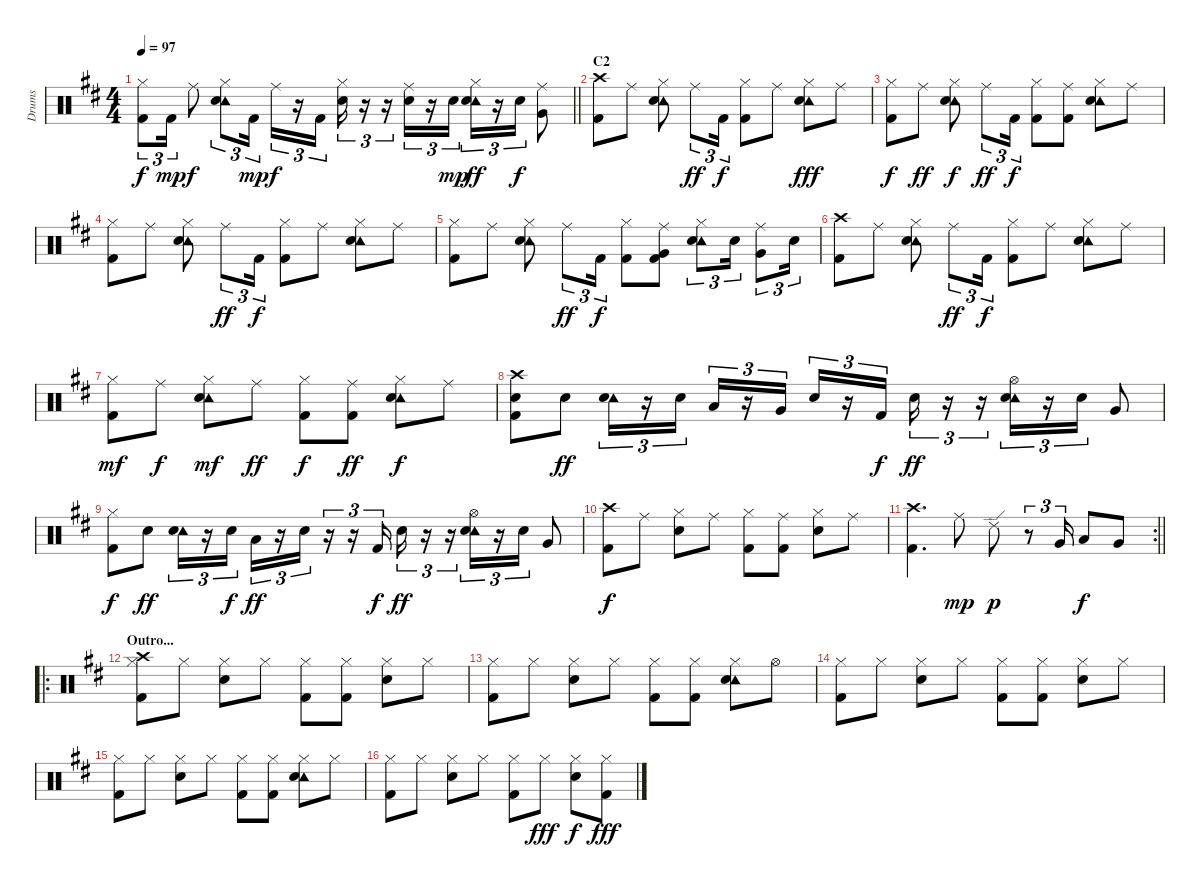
\track ("Drums" "Drums") {instrument percussion}
\staff {score}
\articulation defaults
\ts (4 4)
\tempo 97
\clef neutral
\barLineRight lightlight
\ks d
("Hi-Hat (closed)" "Kick (hit) 2").8{tu (3 2) dy f} "Kick (hit) 2".16{tu (3 2) dy mp} "Ride (middle)".8{dy f} ("Hi-Hat (closed)" "Tambourine (hit)" "Electric Snare (hit)").8{tu (3 2)} "Kick (hit) 2".16{tu (3 2) dy mp} "Ride (middle)".16{tu (3 2) dy f} r.16{tu (3 2)} "Kick (hit) 2".16{tu (3 2)} ("Hi-Hat (closed)" "Electric Snare (hit)").16{tu (3 2)} r.16{tu (3 2)} r.16{tu (3 2)} ("Ride (middle)" "Electric Snare (hit)").16{tu (3 2)} r.16{tu (3 2)} "Electric Snare (hit)".16{tu (3 2) dy mp} ("Hi-Hat (closed)" "Tambourine (hit)" "Electric Snare (hit)").16{tu (3 2) dy ff} r.16{tu (3 2)} "Electric Snare (hit)".16{tu (3 2) dy f} ("Ride (middle)" "Very Low Tom (hit)").8 |
\section ("" "C2")
("Crash high (hit)" "Kick (hit) 2").8 "Ride (middle)".8 ("Hi-Hat (closed)" "Tambourine (hit)" "Electric Snare (hit)").8 "Ride (middle)".8{tu (3 2) dy ff} "Kick (hit) 2".16{tu (3 2) dy f} ("Hi-Hat (closed)" "Kick (hit) 2").8 "Ride (middle)".8 ("Hi-Hat (closed)" "Tambourine (hit)" "Electric Snare (hit)").8{dy fff} "Ride (middle)".8 |
("Hi-Hat (closed)" "Kick (hit) 2").8{dy f} "Ride (middle)".8{dy ff} ("Hi-Hat (closed)" "Tambourine (hit)" "Electric Snare (hit)").8{dy f} "Ride (middle)".8{tu (3 2) dy ff} "Kick (hit) 2".16{tu (3 2) dy f} ("Hi-Hat (closed)" "Kick (hit) 2").8 ("Ride (middle)" "Kick (hit) 2").8 ("Hi-Hat (closed)" "Tambourine (hit)" "Electric Snare (hit)").8 "Ride (middle)".8 |
("Hi-Hat (closed)" "Kick (hit) 2").8 "Ride (middle)".8 ("Hi-Hat (closed)" "Tambourine (hit)" "Electric Snare (hit)").8 "Ride (middle)".8{tu (3 2) dy ff} "Kick (hit) 2".16{tu (3 2) dy f} ("Hi-Hat (closed)" "Kick (hit) 2").8 "Ride (middle)".8 ("Hi-Hat (closed)" "Tambourine (hit)" "Electric Snare (hit)").8 "Ride (middle)".8 |
("Hi-Hat (closed)" "Kick (hit) 2").8 "Ride (middle)".8 ("Hi-Hat (closed)" "Tambourine (hit)" "Electric Snare (hit)").8 "Ride (middle)".8{tu (3 2) dy ff} "Kick (hit) 2".16{tu (3 2) dy f} ("Hi-Hat (closed)" "Kick (hit) 2").8 ("Ride (middle)" "Very Low Tom (hit)" "Kick (hit) 2").8 ("Hi-Hat (closed)" "Tambourine (hit)" "Electric Snare (hit)").8{tu (3 2)} "Electric Snare (hit)".16{tu (3 2)} ("Ride (middle)" "Very Low Tom (hit)").8{tu (3 2)} "Electric Snare (hit)".16{tu (3 2)} |
("Crash high (hit)" "Kick (hit) 2").8 "Ride (middle)".8 ("Hi-Hat (closed)" "Tambourine (hit)" "Electric Snare (hit)").8 "Ride (middle)".8{tu (3 2) dy ff} "Kick (hit) 2".16{tu (3 2) dy f} ("Hi-Hat (closed)" "Kick (hit) 2").8 "Ride (middle)".8 ("Hi-Hat (closed)" "Tambourine (hit)" "Electric Snare (hit)").8 "Ride (middle)".8 |
("Hi-Hat (closed)" "Kick (hit) 2").8{dy mf} "Ride (middle)".8{dy f} ("Hi-Hat (closed)" "Tambourine (hit)" "Electric Snare (hit)").8{dy mf} "Ride (middle)".8{dy ff} ("Hi-Hat (closed)" "Kick (hit) 2").8{dy f} ("Ride (middle)" "Kick (hit) 2").8{dy ff} ("Hi-Hat (closed)" "Tambourine (hit)" "Electric Snare (hit)").8{dy f} "Ride (middle)".8 |
("Crash high (hit)" "Electric Snare (hit)" "Kick (hit) 2").8 "Electric Snare (hit)".8{dy ff} ("Tambourine (hit)" "Electric Snare (hit)").16{tu (3 2)} r.16{tu (3 2)} "Electric Snare (hit)".16{tu (3 2)} "Low Tom (hit)".16{tu (3 2)} r.16{tu (3 2)} "Very Low Tom (hit)".16{tu (3 2)} "Electric Snare (hit)".16{tu (3 2)} r.16{tu (3 2)} "Kick (hit) 2".16{tu (3 2) dy f} "Electric Snare (hit)".16{tu (3 2) dy ff} r.16{tu (3 2)} r.16{tu (3 2)} ("Hi-Hat (open)" "Tambourine (hit)" "Electric Snare (hit)").16{tu (3 2)} r.16{tu (3 2)} "Electric Snare (hit)".16{tu (3 2)} "Very Low Tom (hit)".8 |
("Hi-Hat (closed)" "Kick (hit) 2").8{dy f} "Electric Snare (hit)".8{dy ff} ("Tambourine (hit)" "Electric Snare (hit)").16{tu (3 2)} r.16{tu (3 2)} "Electric Snare (hit)".16{tu (3 2) dy f} "Low Tom (hit)".16{tu (3 2) dy ff} r.16{tu (3 2)} "Electric Snare (hit)".16{tu (3 2)} r.16{tu (3 2)} r.16{tu (3 2)} "Kick (hit) 2".16{tu (3 2) dy f} "Electric Snare (hit)".16{tu (3 2) dy ff} r.16{tu (3 2)} r.16{tu (3 2)} ("Hi-Hat (open)" "Tambourine (hit)" "Electric Snare (hit)").16{tu (3 2)} r.16{tu (3 2)} "Electric Snare (hit)".16{tu (3 2)} "Very Low Tom (hit)".8 |
("Crash high (hit)" "Kick (hit) 2").8{dy f} "Ride (middle)".8 ("Hi-Hat (closed)" "Electric Snare (hit)").8 "Ride (middle)".8 ("Hi-Hat (closed)" "Kick (hit) 2").8 ("Ride (middle)" "Kick (hit) 2").8 ("Hi-Hat (closed)" "Electric Snare (hit)").8 "Ride (middle)".8 |
\rc 2
\barLineRight lightlight
("Crash high (hit)" "Kick (hit) 2").4{d} "Ride (middle)".8{dy mp} "Ride (edge) 2".8{dy p} r.8{tu (3 2)} "Very Low Tom (hit)".16{tu (3 2)} "Low Tom (hit)".8{dy f} "Very Low Tom (hit)".8 |
\ro
\section ("" "Outro...")
("Hi-Hat (closed)" "Crash high (hit)" "Kick (hit) 2").8 "Hi-Hat (closed)".8 ("Hi-Hat (closed)" "Electric Snare (hit)").8 "Hi-Hat (closed)".8 ("Hi-Hat (closed)" "Kick (hit) 2").8 ("Hi-Hat (closed)" "Kick (hit) 2").8 ("Hi-Hat (closed)" "Electric Snare (hit)").8 "Hi-Hat (closed)".8 |
("Hi-Hat (closed)" "Kick (hit) 2").8 "Hi-Hat (closed)".8 ("Hi-Hat (closed)" "Electric Snare (hit)").8 "Hi-Hat (closed)".8 ("Hi-Hat (closed)" "Kick (hit) 2").8 ("Hi-Hat (closed)" "Kick (hit) 2").8 ("Hi-Hat (closed)" "Tambourine (hit)" "Electric Snare (hit)").8 "Hi-Hat (open)".8 |
("Hi-Hat (closed)" "Kick (hit) 2").8 "Hi-Hat (closed)".8 ("Hi-Hat (closed)" "Electric Snare (hit)").8 "Hi-Hat (closed)".8 ("Hi-Hat (closed)" "Kick (hit) 2").8 ("Hi-Hat (closed)" "Kick (hit) 2").8 ("Hi-Hat (closed)" "Electric Snare (hit)").8 "Hi-Hat (closed)".8 |
("Hi-Hat (closed)" "Kick (hit) 2").8 "Hi-Hat (closed)".8 ("Hi-Hat (closed)" "Electric Snare (hit)").8 "Hi-Hat (closed)".8 ("Hi-Hat (closed)" "Kick (hit) 2").8 ("Hi-Hat (closed)" "Kick (hit) 2").8 ("Hi-Hat (closed)" "Tambourine (hit)" "Electric Snare (hit)").8 "Hi-Hat (closed)".8 |
("Hi-Hat (closed)" "Kick (hit) 2").8 "Hi-Hat (closed)".8 ("Hi-Hat (closed)" "Electric Snare (hit)").8 "Hi-Hat (closed)".8 ("Hi-Hat (closed)" "Kick (hit) 2").8 "Hi-Hat (closed)".8{dy fff} ("Hi-Hat (closed)" "Electric Snare (hit)").8{dy f} ("Hi-Hat (closed)" "Kick (hit) 2").8{dy fff}
